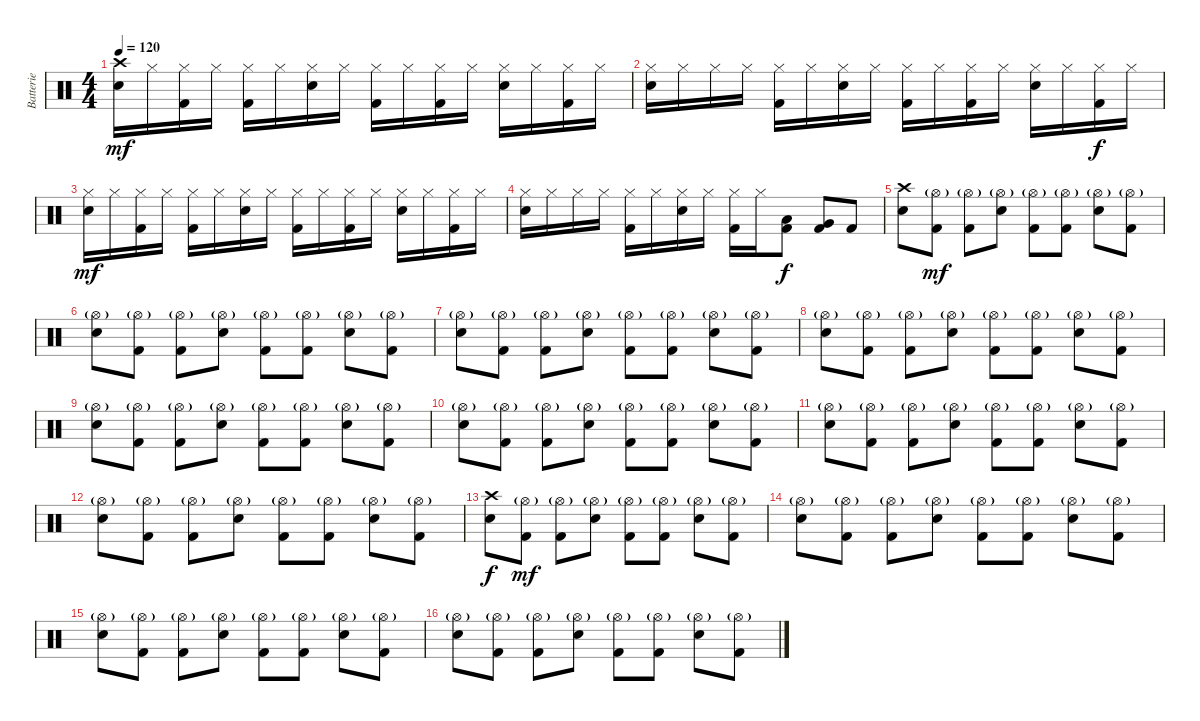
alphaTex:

\track ("Batterie" "Batterie") {instrument percussion}
\staff {score}
\articulation defaults
\ts (4 4)
\tempo 120
\clef neutral
\ks c
("Crash high (hit)" "Snare (hit) 2").16{dy mf} "Hi-Hat (closed)".16 ("Hi-Hat (closed)" "Kick (hit) 2").16 "Hi-Hat (closed)".16 ("Hi-Hat (closed)" "Kick (hit) 2").16 "Hi-Hat (closed)".16 ("Hi-Hat (closed)" "Snare (hit) 2").16 "Hi-Hat (closed)".16 ("Hi-Hat (closed)" "Kick (hit) 2").16 "Hi-Hat (closed)".16 ("Hi-Hat (closed)" "Kick (hit) 2").16 "Hi-Hat (closed)".16 ("Hi-Hat (closed)" "Snare (hit) 2").16 "Hi-Hat (closed)".16 ("Hi-Hat (closed)" "Kick (hit) 2").16 "Hi-Hat (closed)".16 |
("Hi-Hat (closed)" "Snare (hit) 2").16 "Hi-Hat (closed)".16 "Hi-Hat (closed)".16 "Hi-Hat (closed)".16 ("Hi-Hat (closed)" "Kick (hit) 2").16 "Hi-Hat (closed)".16 ("Hi-Hat (closed)" "Snare (hit) 2").16 "Hi-Hat (closed)".16 ("Hi-Hat (closed)" "Kick (hit) 2").16 "Hi-Hat (closed)".16 ("Hi-Hat (closed)" "Kick (hit) 2").16 "Hi-Hat (closed)".16 ("Hi-Hat (closed)" "Snare (hit) 2").16 "Hi-Hat (closed)".16 ("Hi-Hat (closed)" "Kick (hit) 2").16{dy f} "Hi-Hat (closed)".16 |
("Hi-Hat (closed)" "Snare (hit) 2").16{dy mf} "Hi-Hat (closed)".16 ("Hi-Hat (closed)" "Kick (hit) 2").16 "Hi-Hat (closed)".16 ("Hi-Hat (closed)" "Kick (hit) 2").16 "Hi-Hat (closed)".16 ("Hi-Hat (closed)" "Snare (hit) 2").16 "Hi-Hat (closed)".16 ("Hi-Hat (closed)" "Kick (hit) 2").16 "Hi-Hat (closed)".16 ("Hi-Hat (closed)" "Kick (hit) 2").16 "Hi-Hat (closed)".16 ("Hi-Hat (closed)" "Snare (hit) 2").16 "Hi-Hat (closed)".16 ("Hi-Hat (closed)" "Kick (hit) 2").16 "Hi-Hat (closed)".16 |
("Hi-Hat (closed)" "Snare (hit) 2").16 "Hi-Hat (closed)".16 "Hi-Hat (closed)".16 "Hi-Hat (closed)".16 ("Hi-Hat (closed)" "Kick (hit) 2").16 "Hi-Hat (closed)".16 ("Hi-Hat (closed)" "Snare (hit) 2").16 "Hi-Hat (closed)".16 ("Hi-Hat (closed)" "Kick (hit) 2").16 "Hi-Hat (closed)".16 ("Low Tom (hit)" "Kick (hit) 2").8{dy f} ("Very Low Tom (hit)" "Kick (hit) 2").8 "Kick (hit) 2".8 |
("Crash high (hit)" "Snare (hit) 2").8 ("Hi-Hat (open)"{g} "Kick (hit) 2").8{dy mf} ("Hi-Hat (open)"{g} "Kick (hit) 2").8 ("Hi-Hat (open)"{g} "Snare (hit) 2").8 ("Hi-Hat (open)"{g} "Kick (hit) 2").8 ("Hi-Hat (open)"{g} "Kick (hit) 2").8 ("Hi-Hat (open)"{g} "Snare (hit) 2").8 ("Hi-Hat (open)"{g} "Kick (hit) 2").8 |
("Hi-Hat (open)"{g} "Snare (hit) 2").8 ("Hi-Hat (open)"{g} "Kick (hit) 2").8 ("Hi-Hat (open)"{g} "Kick (hit) 2").8 ("Hi-Hat (open)"{g} "Snare (hit) 2").8 ("Hi-Hat (open)"{g} "Kick (hit) 2").8 ("Hi-Hat (open)"{g} "Kick (hit) 2").8 ("Hi-Hat (open)"{g} "Snare (hit) 2").8 ("Hi-Hat (open)"{g} "Kick (hit) 2").8 |
("Hi-Hat (open)"{g} "Snare (hit) 2").8 ("Hi-Hat (open)"{g} "Kick (hit) 2").8 ("Hi-Hat (open)"{g} "Kick (hit) 2").8 ("Hi-Hat (open)"{g} "Snare (hit) 2").8 ("Hi-Hat (open)"{g} "Kick (hit) 2").8 ("Hi-Hat (open)"{g} "Kick (hit) 2").8 ("Hi-Hat (open)"{g} "Snare (hit) 2").8 ("Hi-Hat (open)"{g} "Kick (hit) 2").8 |
("Hi-Hat (open)"{g} "Snare (hit) 2").8 ("Hi-Hat (open)"{g} "Kick (hit) 2").8 ("Hi-Hat (open)"{g} "Kick (hit) 2").8 ("Hi-Hat (open)"{g} "Snare (hit) 2").8 ("Hi-Hat (open)"{g} "Kick (hit) 2").8 ("Hi-Hat (open)"{g} "Kick (hit) 2").8 ("Hi-Hat (open)"{g} "Snare (hit) 2").8 ("Hi-Hat (open)"{g} "Kick (hit) 2").8 |
("Hi-Hat (open)"{g} "Snare (hit) 2").8 ("Hi-Hat (open)"{g} "Kick (hit) 2").8 ("Hi-Hat (open)"{g} "Kick (hit) 2").8 ("Hi-Hat (open)"{g} "Snare (hit) 2").8 ("Hi-Hat (open)"{g} "Kick (hit) 2").8 ("Hi-Hat (open)"{g} "Kick (hit) 2").8 ("Hi-Hat (open)"{g} "Snare (hit) 2").8 ("Hi-Hat (open)"{g} "Kick (hit) 2").8 |
("Hi-Hat (open)"{g} "Snare (hit) 2").8 ("Hi-Hat (open)"{g} "Kick (hit) 2").8 ("Hi-Hat (open)"{g} "Kick (hit) 2").8 ("Hi-Hat (open)"{g} "Snare (hit) 2").8 ("Hi-Hat (open)"{g} "Kick (hit) 2").8 ("Hi-Hat (open)"{g} "Kick (hit) 2").8 ("Hi-Hat (open)"{g} "Snare (hit) 2").8 ("Hi-Hat (open)"{g} "Kick (hit) 2").8 |
("Hi-Hat (open)"{g} "Snare (hit) 2").8 ("Hi-Hat (open)"{g} "Kick (hit) 2").8 ("Hi-Hat (open)"{g} "Kick (hit) 2").8 ("Hi-Hat (open)"{g} "Snare (hit) 2").8 ("Hi-Hat (open)"{g} "Kick (hit) 2").8 ("Hi-Hat (open)"{g} "Kick (hit) 2").8 ("Hi-Hat (open)"{g} "Snare (hit) 2").8 ("Hi-Hat (open)"{g} "Kick (hit) 2").8 |
("Hi-Hat (open)"{g} "Snare (hit) 2").8 ("Hi-Hat (open)"{g} "Kick (hit) 2").8 ("Hi-Hat (open)"{g} "Kick (hit) 2").8 ("Hi-Hat (open)"{g} "Snare (hit) 2").8 ("Hi-Hat (open)"{g} "Kick (hit) 2").8 ("Hi-Hat (open)"{g} "Kick (hit) 2").8 ("Hi-Hat (open)"{g} "Snare (hit) 2").8 ("Hi-Hat (open)"{g} "Kick (hit) 2").8 |
("Crash high (hit)" "Snare (hit) 2").8{dy f} ("Hi-Hat (open)"{g} "Kick (hit) 2").8{dy mf} ("Hi-Hat (open)"{g} "Kick (hit) 2").8 ("Hi-Hat (open)"{g} "Snare (hit) 2").8 ("Hi-Hat (open)"{g} "Kick (hit) 2").8 ("Hi-Hat (open)"{g} "Kick (hit) 2").8 ("Hi-Hat (open)"{g} "Snare (hit) 2").8 ("Hi-Hat (open)"{g} "Kick (hit) 2").8 |
("Hi-Hat (open)"{g} "Snare (hit) 2").8 ("Hi-Hat (open)"{g} "Kick (hit) 2").8 ("Hi-Hat (open)"{g} "Kick (hit) 2").8 ("Hi-Hat (open)"{g} "Snare (hit) 2").8 ("Hi-Hat (open)"{g} "Kick (hit) 2").8 ("Hi-Hat (open)"{g} "Kick (hit) 2").8 ("Hi-Hat (open)"{g} "Snare (hit) 2").8 ("Hi-Hat (open)"{g} "Kick (hit) 2").8 |
("Hi-Hat (open)"{g} "Snare (hit) 2").8 ("Hi-Hat (open)"{g} "Kick (hit) 2").8 ("Hi-Hat (open)"{g} "Kick (hit) 2").8 ("Hi-Hat (open)"{g} "Snare (hit) 2").8 ("Hi-Hat (open)"{g} "Kick (hit) 2").8 ("Hi-Hat (open)"{g} "Kick (hit) 2").8 ("Hi-Hat (open)"{g} "Snare (hit) 2").8 ("Hi-Hat (open)"{g} "Kick (hit) 2").8 |
("Hi-Hat (open)"{g} "Snare (hit) 2").8 ("Hi-Hat (open)"{g} "Kick (hit) 2").8 ("Hi-Hat (open)"{g} "Kick (hit) 2").8 ("Hi-Hat (open)"{g} "Snare (hit) 2").8 ("Hi-Hat (open)"{g} "Kick (hit) 2").8 ("Hi-Hat (open)"{g} "Kick (hit) 2").8 ("Hi-Hat (open)"{g} "Snare (hit) 2").8 ("Hi-Hat (open)"{g} "Kick (hit) 2").8
